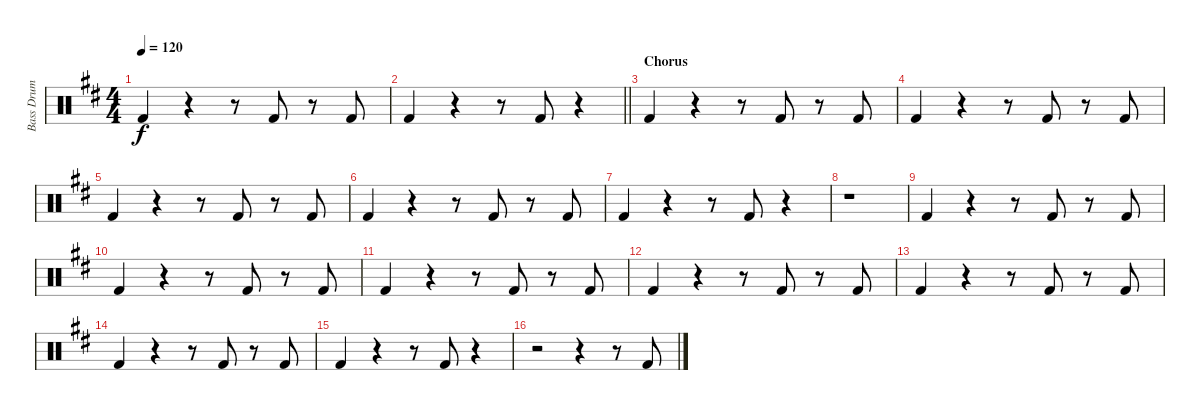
\track ("Bass Drum" "Bass Drum") {instrument percussion}
\staff {score}
\articulation defaults
\ts (4 4)
\tempo 120
\clef neutral
\ks d "Kick (hit) 2".4{dy f}
r.4 r.8 "Kick (hit) 2".8 r.8 "Kick (hit) 2".8 |
\barLineRight lightlight "Kick (hit) 2".4
r.4 r.8 "Kick (hit) 2".8 r.4 |
\section ("" "Chorus")
"Kick (hit) 2".4 r.4 r.8 "Kick (hit) 2".8 r.8 "Kick (hit) 2".8 |
"Kick (hit) 2".4 r.4 r.8 "Kick (hit) 2".8 r.8 "Kick (hit) 2".8 |
"Kick (hit) 2".4 r.4 r.8 "Kick (hit) 2".8 r.8 "Kick (hit) 2".8 |
"Kick (hit) 2".4 r.4 r.8 "Kick (hit) 2".8 r.8 "Kick (hit) 2".8 |
"Kick (hit) 2".4 r.4 r.8 "Kick (hit) 2".8 r.4 |
r.1 |
"Kick (hit) 2".4 r.4 r.8 "Kick (hit) 2".8 r.8 "Kick (hit) 2".8 |
"Kick (hit) 2".4 r.4 r.8 "Kick (hit) 2".8 r.8 "Kick (hit) 2".8 |
"Kick (hit) 2".4 r.4 r.8 "Kick (hit) 2".8 r.8 "Kick (hit) 2".8 |
"Kick (hit) 2".4 r.4 r.8 "Kick (hit) 2".8 r.8 "Kick (hit) 2".8 |
"Kick (hit) 2".4 r.4 r.8 "Kick (hit) 2".8 r.8 "Kick (hit) 2".8 |
"Kick (hit) 2".4 r.4 r.8 "Kick (hit) 2".8 r.8 "Kick (hit) 2".8 |
"Kick (hit) 2".4 r.4 r.8 "Kick (hit) 2".8 r.4 |
r.2 r.4 r.8 "Kick (hit) 2".8
